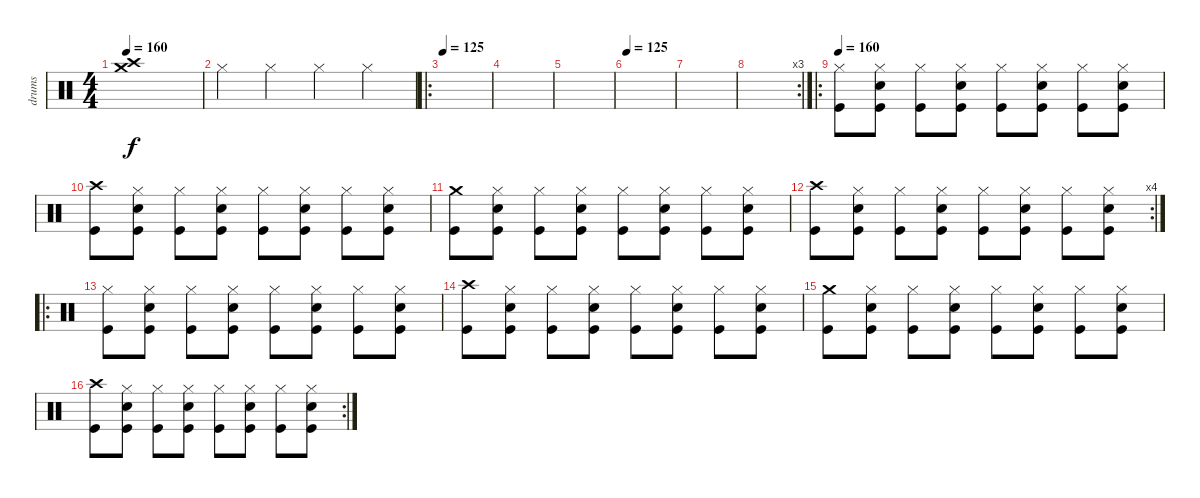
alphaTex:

\track ("drums" "drums") {instrument percussion}
\staff {score}
\articulation defaults
\ts (4 4)
\tempo 160
\clef neutral
\ks c
("Crash high (hit)" "Crash medium (hit)").1{dy f} |
"Hi-Hat (closed)".4 "Hi-Hat (closed)".4 "Hi-Hat (closed)".4 "Hi-Hat (closed)".4 |
\ro
\tempo 125
|
|
|
\tempo 125
|
|
\rc 3
|
\ro
\tempo 160
("Hi-Hat (closed)" "Kick (hit)").8 ("Hi-Hat (closed)" "Snare (hit) 2" "Kick (hit)").8 ("Hi-Hat (closed)" "Kick (hit)").8 ("Hi-Hat (closed)" "Snare (hit) 2" "Kick (hit)").8 ("Hi-Hat (closed)" "Kick (hit)").8 ("Hi-Hat (closed)" "Snare (hit) 2" "Kick (hit)").8 ("Hi-Hat (closed)" "Kick (hit)").8 ("Hi-Hat (closed)" "Snare (hit) 2" "Kick (hit)").8 |
("Crash high (hit)" "Kick (hit)").8 ("Hi-Hat (closed)" "Snare (hit) 2" "Kick (hit)").8 ("Hi-Hat (closed)" "Kick (hit)").8 ("Hi-Hat (closed)" "Snare (hit) 2" "Kick (hit)").8 ("Hi-Hat (closed)" "Kick (hit)").8 ("Hi-Hat (closed)" "Snare (hit) 2" "Kick (hit)").8 ("Hi-Hat (closed)" "Kick (hit)").8 ("Hi-Hat (closed)" "Snare (hit) 2" "Kick (hit)").8 |
("Crash medium (hit)" "Kick (hit)").8 ("Hi-Hat (closed)" "Snare (hit) 2" "Kick (hit)").8 ("Hi-Hat (closed)" "Kick (hit)").8 ("Hi-Hat (closed)" "Snare (hit) 2" "Kick (hit)").8 ("Hi-Hat (closed)" "Kick (hit)").8 ("Hi-Hat (closed)" "Snare (hit) 2" "Kick (hit)").8 ("Hi-Hat (closed)" "Kick (hit)").8 ("Hi-Hat (closed)" "Snare (hit) 2" "Kick (hit)").8 |
\rc 4
("Crash high (hit)" "Kick (hit)").8 ("Hi-Hat (closed)" "Snare (hit) 2" "Kick (hit)").8 ("Hi-Hat (closed)" "Kick (hit)").8 ("Hi-Hat (closed)" "Snare (hit) 2" "Kick (hit)").8 ("Hi-Hat (closed)" "Kick (hit)").8 ("Hi-Hat (closed)" "Snare (hit) 2" "Kick (hit)").8 ("Hi-Hat (closed)" "Kick (hit)").8 ("Hi-Hat (closed)" "Snare (hit) 2" "Kick (hit)").8 |
\ro
("Hi-Hat (closed)" "Kick (hit)").8 ("Hi-Hat (closed)" "Snare (hit) 2" "Kick (hit)").8 ("Hi-Hat (closed)" "Kick (hit)").8 ("Hi-Hat (closed)" "Snare (hit) 2" "Kick (hit)").8 ("Hi-Hat (closed)" "Kick (hit)").8 ("Hi-Hat (closed)" "Snare (hit) 2" "Kick (hit)").8 ("Hi-Hat (closed)" "Kick (hit)").8 ("Hi-Hat (closed)" "Snare (hit) 2" "Kick (hit)").8 |
("Crash high (hit)" "Kick (hit)").8 ("Hi-Hat (closed)" "Snare (hit) 2" "Kick (hit)").8 ("Hi-Hat (closed)" "Kick (hit)").8 ("Hi-Hat (closed)" "Snare (hit) 2" "Kick (hit)").8 ("Hi-Hat (closed)" "Kick (hit)").8 ("Hi-Hat (closed)" "Snare (hit) 2" "Kick (hit)").8 ("Hi-Hat (closed)" "Kick (hit)").8 ("Hi-Hat (closed)" "Snare (hit) 2" "Kick (hit)").8 |
("Crash medium (hit)" "Kick (hit)").8 ("Hi-Hat (closed)" "Snare (hit) 2" "Kick (hit)").8 ("Hi-Hat (closed)" "Kick (hit)").8 ("Hi-Hat (closed)" "Snare (hit) 2" "Kick (hit)").8 ("Hi-Hat (closed)" "Kick (hit)").8 ("Hi-Hat (closed)" "Snare (hit) 2" "Kick (hit)").8 ("Hi-Hat (closed)" "Kick (hit)").8 ("Hi-Hat (closed)" "Snare (hit) 2" "Kick (hit)").8 |
\rc 2
("Crash high (hit)" "Kick (hit)").8 ("Hi-Hat (closed)" "Snare (hit) 2" "Kick (hit)").8 ("Hi-Hat (closed)" "Kick (hit)").8 ("Hi-Hat (closed)" "Snare (hit) 2" "Kick (hit)").8 ("Hi-Hat (closed)" "Kick (hit)").8 ("Hi-Hat (closed)" "Snare (hit) 2" "Kick (hit)").8 ("Hi-Hat (closed)" "Kick (hit)").8 ("Hi-Hat (closed)" "Snare (hit) 2" "Kick (hit)").8
